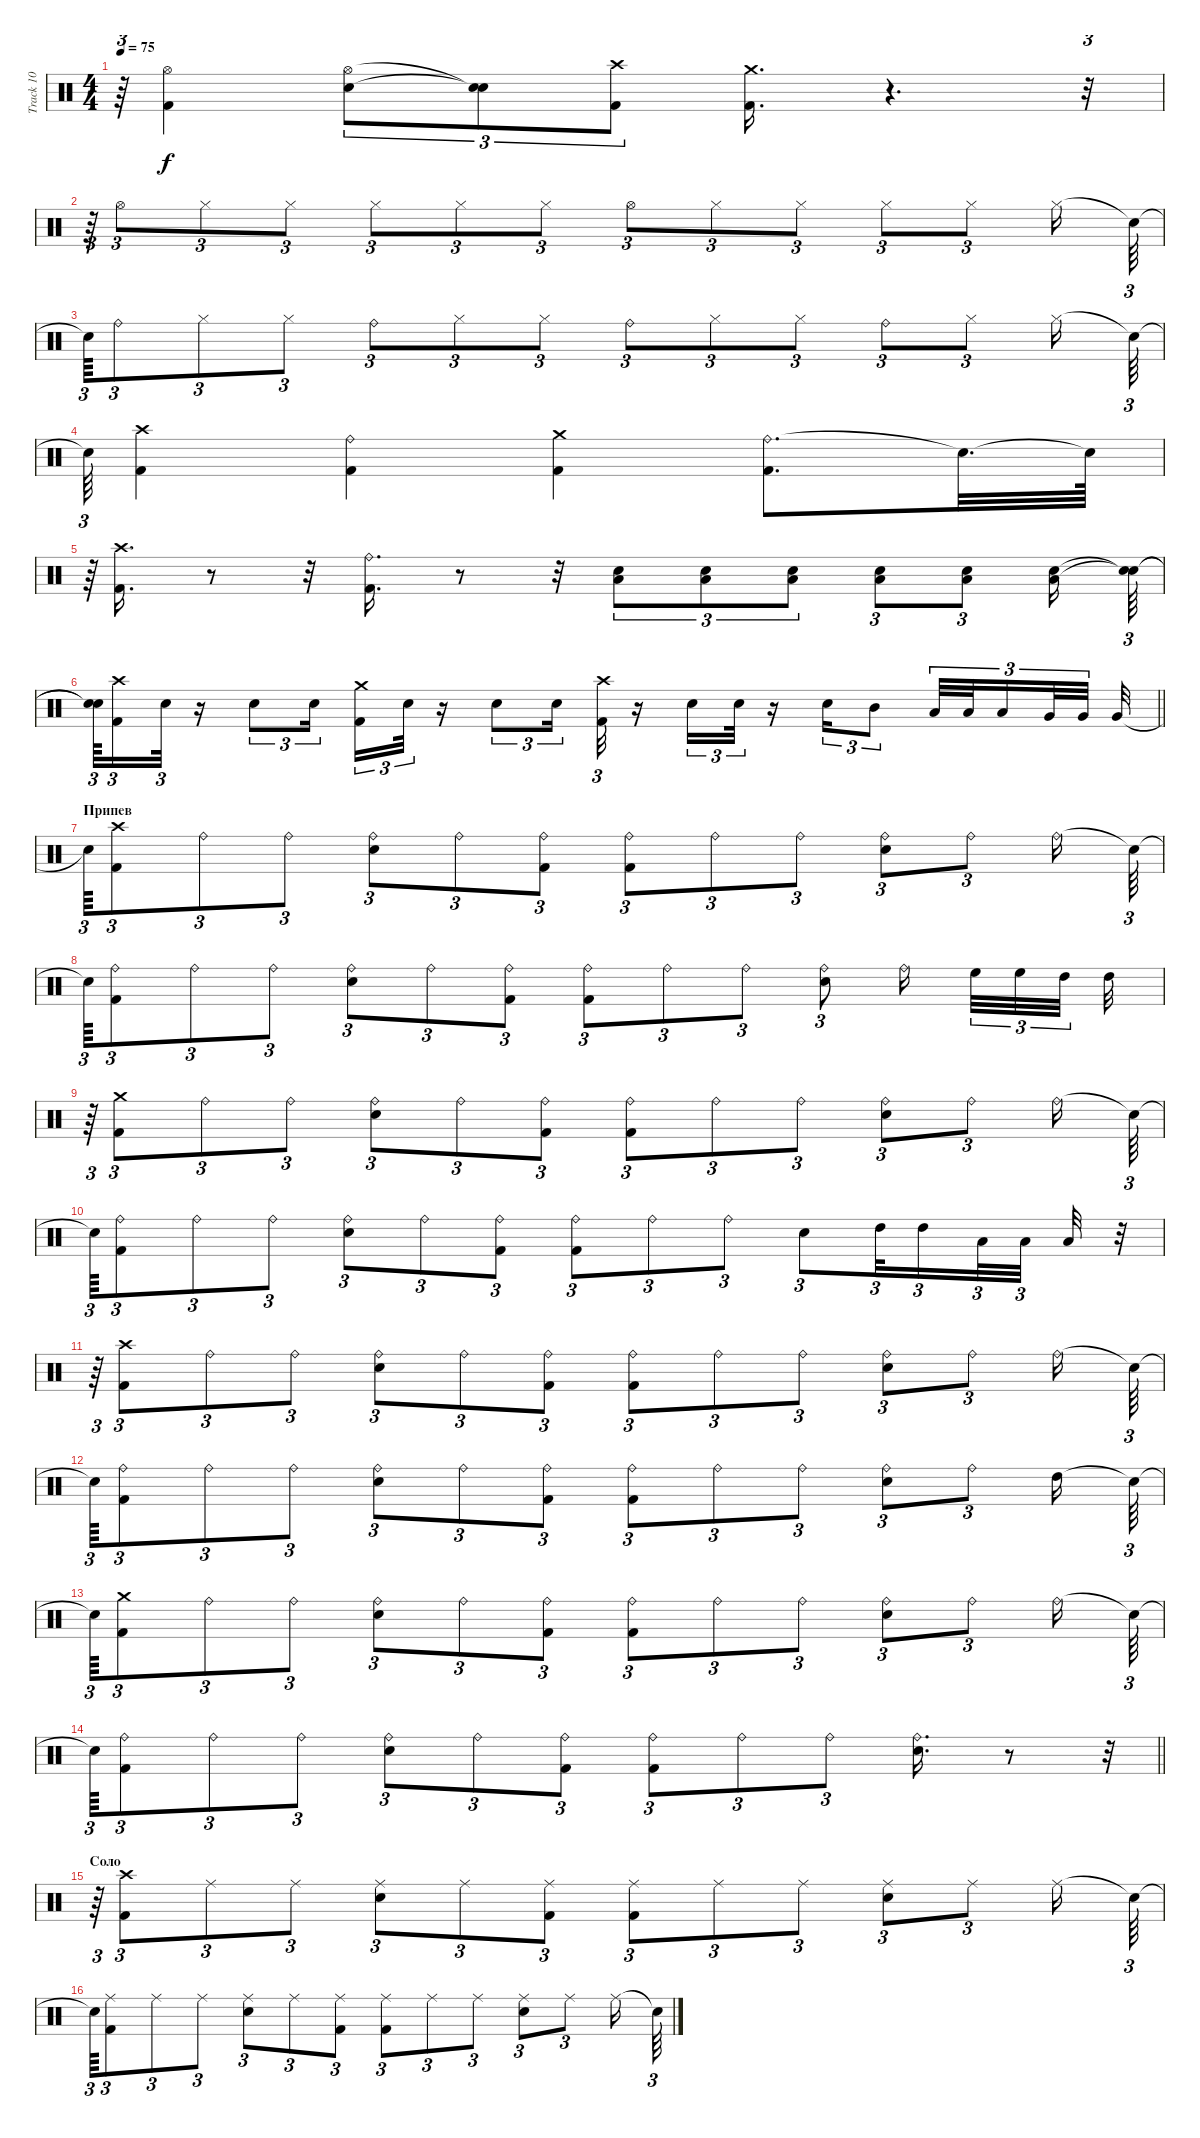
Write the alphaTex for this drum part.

\track ("Track 10" "Track 10") {instrument percussion}
\staff {score}
\articulation defaults
\ts (4 4)
\tempo 75
\clef neutral
\ks c
r.64{tu (3 2) dy f} ("Kick (hit) 2" "Hi-Hat (open)").4 ("Snare (hit) 2" "Hi-Hat (open)").8{tu (3 2)} ("Snare (hit)"{t} "Snare (hit)"{t}).8{tu (3 2)} ("Crash high (hit)" "Kick (hit) 2").8{tu (3 2)} ("Crash medium (hit)" "Kick (hit) 2").16{d} r.4{d} r.32{tu (3 2)} |
r.64{tu (3 2)} "Hi-Hat (open)".8{tu (3 2)} "Hi-Hat (closed)".8{tu (3 2)} "Hi-Hat (closed)".8{tu (3 2)} "Hi-Hat (closed)".8{tu (3 2)} "Hi-Hat (closed)".8{tu (3 2)} "Hi-Hat (closed)".8{tu (3 2)} "Hi-Hat (open)".8{tu (3 2)} "Hi-Hat (closed)".8{tu (3 2)} "Hi-Hat (closed)".8{tu (3 2)} "Hi-Hat (closed)".8{tu (3 2)} "Hi-Hat (closed)".8{tu (3 2)} "Hi-Hat (closed)".16 "Snare (hit)"{t}.64{tu (3 2)} |
"Snare (hit)"{t}.64{tu (3 2)} "Ride (bell)".8{tu (3 2)} "Hi-Hat (closed)".8{tu (3 2)} "Hi-Hat (closed)".8{tu (3 2)} "Ride (bell)".8{tu (3 2)} "Hi-Hat (closed)".8{tu (3 2)} "Hi-Hat (closed)".8{tu (3 2)} "Ride (bell)".8{tu (3 2)} "Hi-Hat (closed)".8{tu (3 2)} "Hi-Hat (closed)".8{tu (3 2)} "Ride (bell)".8{tu (3 2)} "Hi-Hat (closed)".8{tu (3 2)} "Hi-Hat (closed)".16 "Snare (hit)"{t}.64{tu (3 2)} |
"Snare (hit)"{t}.64{tu (3 2)} ("Crash high (hit)" "Kick (hit) 2").4 ("Ride (bell)" "Kick (hit) 2").4 ("Crash medium (hit)" "Kick (hit) 2").4 ("Ride (bell)" "Kick (hit) 2").8{d} "Snare (hit)"{t}.32{d} "Snare (hit)"{t}.64 |
r.64{tu (3 2)} ("Crash high (hit)" "Kick (hit) 2").16{d} r.8 r.32 ("Ride (bell)" "Kick (hit) 2").16{d} r.8 r.32 ("Snare (hit) 2" "Low Floor Tom (hit)").8{tu (3 2)} ("Snare (hit) 2" "Low Floor Tom (hit)").8{tu (3 2)} ("Snare (hit) 2" "Low Floor Tom (hit)").8{tu (3 2)} ("Snare (hit) 2" "Low Floor Tom (hit)").8{tu (3 2)} ("Snare (hit) 2" "Low Floor Tom (hit)").8{tu (3 2)} ("Snare (hit) 2" "Low Floor Tom (hit)").16 ("Snare (hit)"{t} "Snare (hit)"{t}).64{tu (3 2)} |
\barLineRight lightlight
("Snare (hit)"{t} "Snare (hit)"{t}).64{tu (3 2)} ("Kick (hit) 2" "Crash high (hit)").16{tu (3 2)} "Snare (hit) 2".32{tu (3 2)} r.16 "Snare (hit) 2".8{tu (3 2)} "Snare (hit) 2".16{tu (3 2)} ("Crash medium (hit)" "Kick (hit) 2").16{tu (3 2)} "Snare (hit) 2".32{tu (3 2)} r.16 "Snare (hit) 2".8{tu (3 2)} "Snare (hit) 2".16{tu (3 2)} ("Crash high (hit)" "Kick (hit) 2").32{tu (3 2)} r.16 "Snare (hit) 2".16{tu (3 2)} "Snare (hit) 2".32{tu (3 2)} r.16 "Snare (hit) 2".16{tu (3 2)} "Mid Tom (hit)".8{tu (3 2)} "Low Tom (hit)".32{tu (3 2)} "Low Tom (hit)".32{tu (3 2)} "Low Tom (hit)".16{tu (3 2)} "Very Low Tom (hit)".32{tu (3 2)} "Very Low Tom (hit)".32{tu (3 2) beam splitsecondary} "Very Low Tom (hit)".32 |
\section ("" "Припев")
"Snare (hit)"{t}.64{tu (3 2)} ("Kick (hit) 2" "Crash high (hit)").8{tu (3 2)} "Ride (bell)".8{tu (3 2)} "Ride (bell)".8{tu (3 2)} ("Ride (bell)" "Snare (hit) 2").8{tu (3 2)} "Ride (bell)".8{tu (3 2)} ("Ride (bell)" "Kick (hit) 2").8{tu (3 2)} ("Ride (bell)" "Kick (hit) 2").8{tu (3 2)} "Ride (bell)".8{tu (3 2)} "Ride (bell)".8{tu (3 2)} ("Ride (bell)" "Snare (hit) 2").8{tu (3 2)} "Ride (bell)".8{tu (3 2)} "Ride (bell)".16 "Snare (hit)"{t}.64{tu (3 2)} |
"Snare (hit)"{t}.64{tu (3 2)} ("Ride (bell)" "Kick (hit) 2").8{tu (3 2)} "Ride (bell)".8{tu (3 2)} "Ride (bell)".8{tu (3 2)} ("Ride (bell)" "Snare (hit) 2").8{tu (3 2)} "Ride (bell)".8{tu (3 2)} ("Ride (bell)" "Kick (hit) 2").8{tu (3 2)} ("Ride (bell)" "Kick (hit) 2").8{tu (3 2)} "Ride (bell)".8{tu (3 2)} "Ride (bell)".8{tu (3 2)} ("Ride (bell)" "Snare (hit) 2").8{tu (3 2)} "Ride (bell)".16{beam splitsecondary} "High Floor Tom (hit)".32{tu (3 2)} "High Floor Tom (hit)".32{tu (3 2)} "High Tom (hit)".32{tu (3 2) beam splitsecondary} "High Tom (hit)".32 |
r.64{tu (3 2)} ("Crash medium (hit)" "Kick (hit) 2").8{tu (3 2)} "Ride (bell)".8{tu (3 2)} "Ride (bell)".8{tu (3 2)} ("Ride (bell)" "Snare (hit) 2").8{tu (3 2)} "Ride (bell)".8{tu (3 2)} ("Ride (bell)" "Kick (hit) 2").8{tu (3 2)} ("Ride (bell)" "Kick (hit) 2").8{tu (3 2)} "Ride (bell)".8{tu (3 2)} "Ride (bell)".8{tu (3 2)} ("Ride (bell)" "Snare (hit) 2").8{tu (3 2)} "Ride (bell)".8{tu (3 2)} "Ride (bell)".16 "Snare (hit)"{t}.64{tu (3 2)} |
"Snare (hit)"{t}.64{tu (3 2)} ("Ride (bell)" "Kick (hit) 2").8{tu (3 2)} "Ride (bell)".8{tu (3 2)} "Ride (bell)".8{tu (3 2)} ("Ride (bell)" "Snare (hit) 2").8{tu (3 2)} "Ride (bell)".8{tu (3 2)} ("Ride (bell)" "Kick (hit) 2").8{tu (3 2)} ("Ride (bell)" "Kick (hit) 2").8{tu (3 2)} "Ride (bell)".8{tu (3 2)} "Ride (bell)".8{tu (3 2)} "Snare (hit) 2".8{tu (3 2)} "High Tom (hit)".32{tu (3 2)} "High Tom (hit)".16{tu (3 2)} "Low Tom (hit)".32{tu (3 2)} "Low Tom (hit)".32{tu (3 2) beam splitsecondary} "Low Tom (hit)".32 r.32{tu (3 2)} |
r.64{tu (3 2)} ("Crash high (hit)" "Kick (hit) 2").8{tu (3 2)} "Ride (bell)".8{tu (3 2)} "Ride (bell)".8{tu (3 2)} ("Ride (bell)" "Snare (hit) 2").8{tu (3 2)} "Ride (bell)".8{tu (3 2)} ("Ride (bell)" "Kick (hit) 2").8{tu (3 2)} ("Ride (bell)" "Kick (hit) 2").8{tu (3 2)} "Ride (bell)".8{tu (3 2)} "Ride (bell)".8{tu (3 2)} ("Ride (bell)" "Snare (hit) 2").8{tu (3 2)} "Ride (bell)".8{tu (3 2)} "Ride (bell)".16 "Snare (hit)"{t}.64{tu (3 2)} |
"Snare (hit)"{t}.64{tu (3 2)} ("Ride (bell)" "Kick (hit) 2").8{tu (3 2)} "Ride (bell)".8{tu (3 2)} "Ride (bell)".8{tu (3 2)} ("Ride (bell)" "Snare (hit) 2").8{tu (3 2)} "Ride (bell)".8{tu (3 2)} ("Ride (bell)" "Kick (hit) 2").8{tu (3 2)} ("Ride (bell)" "Kick (hit) 2").8{tu (3 2)} "Ride (bell)".8{tu (3 2)} "Ride (bell)".8{tu (3 2)} ("Ride (bell)" "Snare (hit) 2").8{tu (3 2)} "Ride (bell)".8{tu (3 2)} "High Tom (hit)".16 "Snare (hit)"{t}.64{tu (3 2)} |
"Snare (hit)"{t}.64{tu (3 2)} ("Crash medium (hit)" "Kick (hit) 2").8{tu (3 2)} "Ride (bell)".8{tu (3 2)} "Ride (bell)".8{tu (3 2)} ("Ride (bell)" "Snare (hit) 2").8{tu (3 2)} "Ride (bell)".8{tu (3 2)} ("Ride (bell)" "Kick (hit) 2").8{tu (3 2)} ("Ride (bell)" "Kick (hit) 2").8{tu (3 2)} "Ride (bell)".8{tu (3 2)} "Ride (bell)".8{tu (3 2)} ("Ride (bell)" "Snare (hit) 2").8{tu (3 2)} "Ride (bell)".8{tu (3 2)} "Ride (bell)".16 "Snare (hit)"{t}.64{tu (3 2)} |
\barLineRight lightlight "Snare (hit)"{t}.64{tu (3 2)}
("Ride (bell)" "Kick (hit) 2").8{tu (3 2)} "Ride (bell)".8{tu (3 2)} "Ride (bell)".8{tu (3 2)} ("Ride (bell)" "Snare (hit) 2").8{tu (3 2)} "Ride (bell)".8{tu (3 2)} ("Ride (bell)" "Kick (hit) 2").8{tu (3 2)} ("Ride (bell)" "Kick (hit) 2").8{tu (3 2)} "Ride (bell)".8{tu (3 2)} "Ride (bell)".8{tu (3 2)} ("Ride (bell)" "Snare (hit) 2").16{d} r.8 r.32{tu (3 2)} |
\section ("" "Соло")
r.64{tu (3 2)} ("Kick (hit) 2" "Crash high (hit)").8{tu (3 2)} "Ride (middle)".8{tu (3 2)} "Ride (middle)".8{tu (3 2)} ("Ride (middle)" "Snare (hit) 2").8{tu (3 2)} "Ride (middle)".8{tu (3 2)} ("Ride (middle)" "Kick (hit) 2").8{tu (3 2)} ("Ride (middle)" "Kick (hit) 2").8{tu (3 2)} "Ride (middle)".8{tu (3 2)} "Ride (middle)".8{tu (3 2)} ("Ride (middle)" "Snare (hit) 2").8{tu (3 2)} "Ride (middle)".8{tu (3 2)} "Ride (middle)".16 "Snare (hit)"{t}.64{tu (3 2)} |
"Snare (hit)"{t}.64{tu (3 2)} ("Ride (middle)" "Kick (hit) 2").8{tu (3 2)} "Ride (middle)".8{tu (3 2)} "Ride (middle)".8{tu (3 2)} ("Ride (middle)" "Snare (hit) 2").8{tu (3 2)} "Ride (middle)".8{tu (3 2)} ("Ride (middle)" "Kick (hit) 2").8{tu (3 2)} ("Ride (middle)" "Kick (hit) 2").8{tu (3 2)} "Ride (middle)".8{tu (3 2)} "Ride (middle)".8{tu (3 2)} ("Ride (middle)" "Snare (hit) 2").8{tu (3 2)} "Ride (middle)".8{tu (3 2)} "Ride (middle)".16 "Snare (hit)"{t}.64{tu (3 2)}
